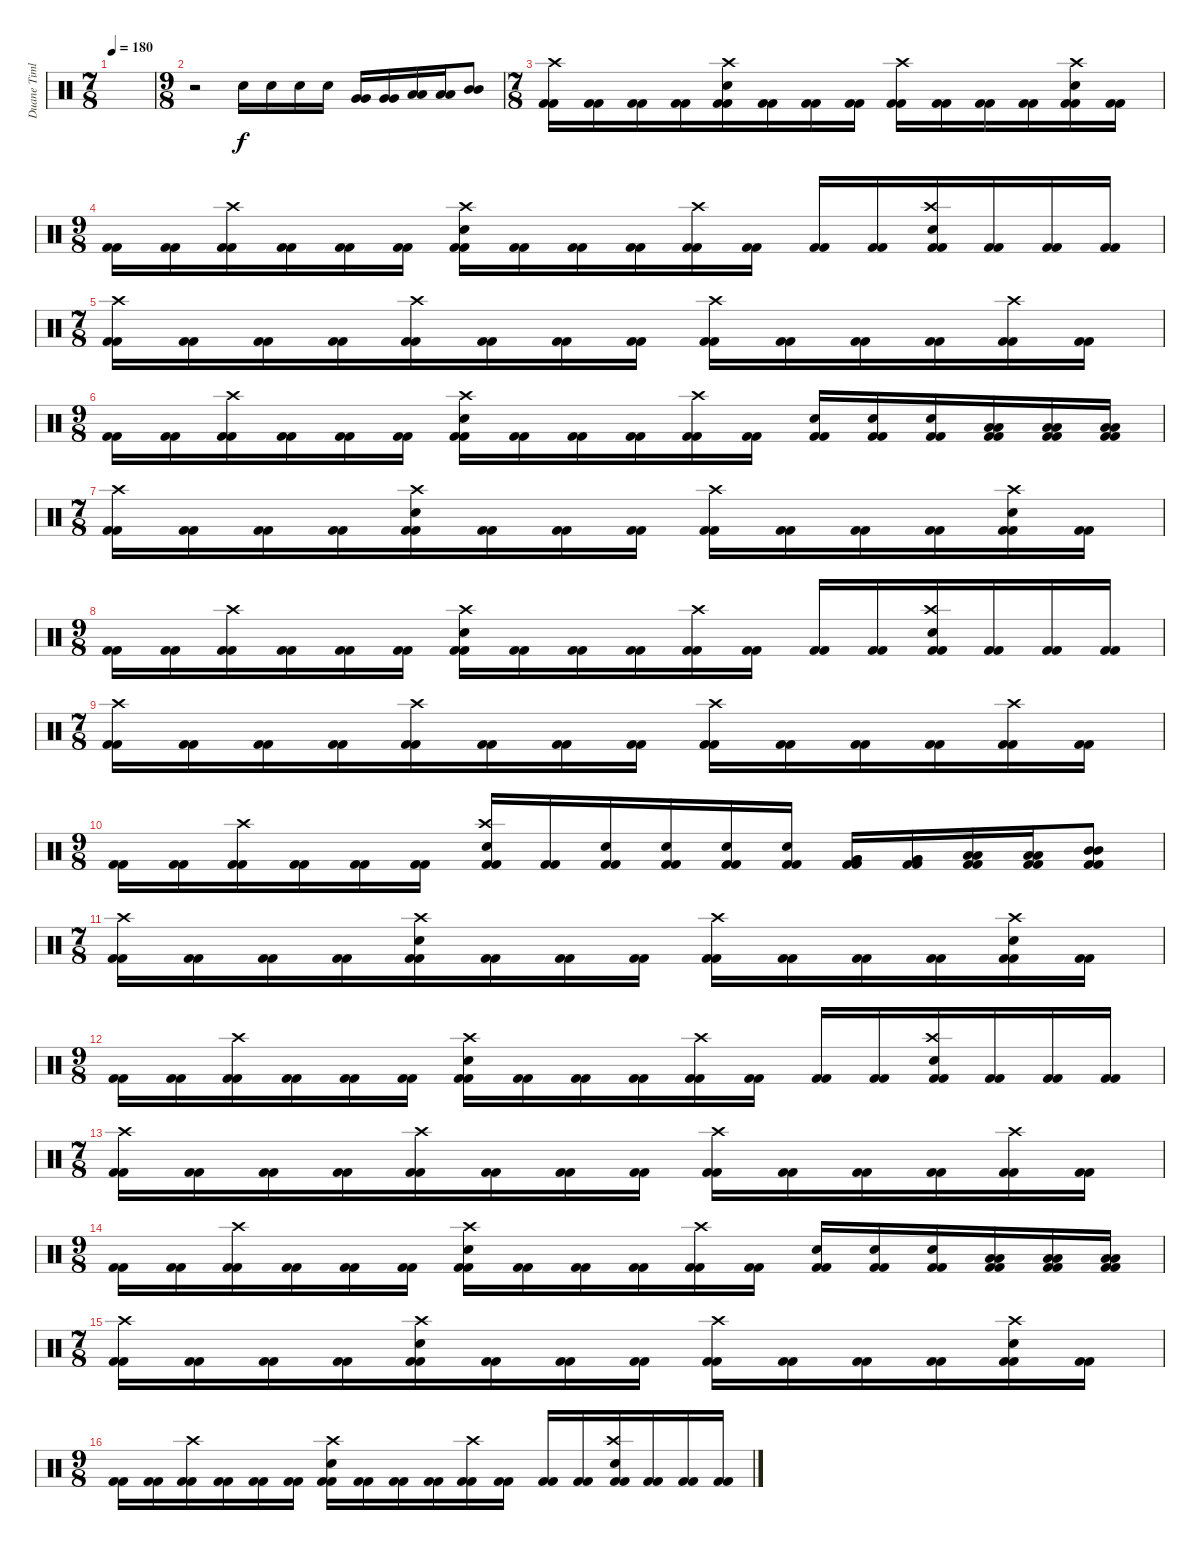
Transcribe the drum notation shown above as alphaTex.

\track ("Duane Timlin" "Duane Timl") {instrument percussion}
\staff {score}
\articulation defaults
\ts (7 8)
\tempo 180
\clef neutral
\ks c
|
\ts (9 8)
r.2 "Electric Snare (hit)".16 "Electric Snare (hit)".16 "Electric Snare (hit)".16 "Electric Snare (hit)".16 ("Very Low Tom (hit)" "Very Low Tom (hit)").16 ("Very Low Tom (hit)" "Very Low Tom (hit)").16 ("Low Tom (hit)" "Low Tom (hit)").16 ("Low Tom (hit)" "Low Tom (hit)").16 ("Mid Tom (hit)" "Mid Tom (hit)").8 |
\ts (7 8)
("Crash high (hit)" "Kick (hit) 2" "Kick (hit) 2").16 ("Kick (hit) 2" "Kick (hit) 2").16 ("Kick (hit) 2" "Kick (hit) 2").16 ("Kick (hit) 2" "Kick (hit) 2").16 ("Crash high (hit)" "Electric Snare (hit)" "Kick (hit) 2" "Kick (hit) 2").16 ("Kick (hit) 2" "Kick (hit) 2").16 ("Kick (hit) 2" "Kick (hit) 2").16 ("Kick (hit) 2" "Kick (hit) 2").16 ("Crash high (hit)" "Kick (hit) 2" "Kick (hit) 2").16 ("Kick (hit) 2" "Kick (hit) 2").16 ("Kick (hit) 2" "Kick (hit) 2").16 ("Kick (hit) 2" "Kick (hit) 2").16 ("Crash high (hit)" "Electric Snare (hit)" "Kick (hit) 2" "Kick (hit) 2").16 ("Kick (hit) 2" "Kick (hit) 2").16 |
\ts (9 8)
("Kick (hit) 2" "Kick (hit) 2").16 ("Kick (hit) 2" "Kick (hit) 2").16 ("Crash high (hit)" "Kick (hit) 2" "Kick (hit) 2").16 ("Kick (hit) 2" "Kick (hit) 2").16 ("Kick (hit) 2" "Kick (hit) 2").16 ("Kick (hit) 2" "Kick (hit) 2").16 ("Crash high (hit)" "Electric Snare (hit)" "Kick (hit) 2" "Kick (hit) 2").16 ("Kick (hit) 2" "Kick (hit) 2").16 ("Kick (hit) 2" "Kick (hit) 2").16 ("Kick (hit) 2" "Kick (hit) 2").16 ("Crash high (hit)" "Kick (hit) 2" "Kick (hit) 2").16 ("Kick (hit) 2" "Kick (hit) 2").16 ("Kick (hit) 2" "Kick (hit) 2").16 ("Kick (hit) 2" "Kick (hit) 2").16 ("Crash high (hit)" "Electric Snare (hit)" "Kick (hit) 2" "Kick (hit) 2").16 ("Kick (hit) 2" "Kick (hit) 2").16 ("Kick (hit) 2" "Kick (hit) 2").16 ("Kick (hit) 2" "Kick (hit) 2").16 |
\ts (7 8)
("Crash high (hit)" "Kick (hit) 2" "Kick (hit) 2").16 ("Kick (hit) 2" "Kick (hit) 2").16 ("Kick (hit) 2" "Kick (hit) 2").16 ("Kick (hit) 2" "Kick (hit) 2").16 ("Crash high (hit)" "Kick (hit) 2" "Kick (hit) 2").16 ("Kick (hit) 2" "Kick (hit) 2").16 ("Kick (hit) 2" "Kick (hit) 2").16 ("Kick (hit) 2" "Kick (hit) 2").16 ("Crash high (hit)" "Kick (hit) 2" "Kick (hit) 2").16 ("Kick (hit) 2" "Kick (hit) 2").16 ("Kick (hit) 2" "Kick (hit) 2").16 ("Kick (hit) 2" "Kick (hit) 2").16 ("Crash high (hit)" "Kick (hit) 2" "Kick (hit) 2").16 ("Kick (hit) 2" "Kick (hit) 2").16 |
\ts (9 8)
("Kick (hit) 2" "Kick (hit) 2").16 ("Kick (hit) 2" "Kick (hit) 2").16 ("Crash high (hit)" "Kick (hit) 2" "Kick (hit) 2").16 ("Kick (hit) 2" "Kick (hit) 2").16 ("Kick (hit) 2" "Kick (hit) 2").16 ("Kick (hit) 2" "Kick (hit) 2").16 ("Crash high (hit)" "Electric Snare (hit)" "Kick (hit) 2" "Kick (hit) 2").16 ("Kick (hit) 2" "Kick (hit) 2").16 ("Kick (hit) 2" "Kick (hit) 2").16 ("Kick (hit) 2" "Kick (hit) 2").16 ("Crash high (hit)" "Kick (hit) 2" "Kick (hit) 2").16 ("Kick (hit) 2" "Kick (hit) 2").16 ("Electric Snare (hit)" "Kick (hit) 2" "Kick (hit) 2").16 ("Electric Snare (hit)" "Kick (hit) 2" "Kick (hit) 2").16 ("Electric Snare (hit)" "Kick (hit) 2" "Kick (hit) 2").16 ("Low Tom (hit)" "Low Tom (hit)" "Kick (hit) 2" "Kick (hit) 2").16 ("Low Tom (hit)" "Low Tom (hit)" "Kick (hit) 2" "Kick (hit) 2").16 ("Low Tom (hit)" "Low Tom (hit)" "Kick (hit) 2" "Kick (hit) 2").16 |
\ts (7 8)
("Crash high (hit)" "Kick (hit) 2" "Kick (hit) 2").16 ("Kick (hit) 2" "Kick (hit) 2").16 ("Kick (hit) 2" "Kick (hit) 2").16 ("Kick (hit) 2" "Kick (hit) 2").16 ("Crash high (hit)" "Electric Snare (hit)" "Kick (hit) 2" "Kick (hit) 2").16 ("Kick (hit) 2" "Kick (hit) 2").16 ("Kick (hit) 2" "Kick (hit) 2").16 ("Kick (hit) 2" "Kick (hit) 2").16 ("Crash high (hit)" "Kick (hit) 2" "Kick (hit) 2").16 ("Kick (hit) 2" "Kick (hit) 2").16 ("Kick (hit) 2" "Kick (hit) 2").16 ("Kick (hit) 2" "Kick (hit) 2").16 ("Crash high (hit)" "Electric Snare (hit)" "Kick (hit) 2" "Kick (hit) 2").16 ("Kick (hit) 2" "Kick (hit) 2").16 |
\ts (9 8)
("Kick (hit) 2" "Kick (hit) 2").16 ("Kick (hit) 2" "Kick (hit) 2").16 ("Crash high (hit)" "Kick (hit) 2" "Kick (hit) 2").16 ("Kick (hit) 2" "Kick (hit) 2").16 ("Kick (hit) 2" "Kick (hit) 2").16 ("Kick (hit) 2" "Kick (hit) 2").16 ("Crash high (hit)" "Electric Snare (hit)" "Kick (hit) 2" "Kick (hit) 2").16 ("Kick (hit) 2" "Kick (hit) 2").16 ("Kick (hit) 2" "Kick (hit) 2").16 ("Kick (hit) 2" "Kick (hit) 2").16 ("Crash high (hit)" "Kick (hit) 2" "Kick (hit) 2").16 ("Kick (hit) 2" "Kick (hit) 2").16 ("Kick (hit) 2" "Kick (hit) 2").16 ("Kick (hit) 2" "Kick (hit) 2").16 ("Crash high (hit)" "Electric Snare (hit)" "Kick (hit) 2" "Kick (hit) 2").16 ("Kick (hit) 2" "Kick (hit) 2").16 ("Kick (hit) 2" "Kick (hit) 2").16 ("Kick (hit) 2" "Kick (hit) 2").16 |
\ts (7 8)
("Crash high (hit)" "Kick (hit) 2" "Kick (hit) 2").16 ("Kick (hit) 2" "Kick (hit) 2").16 ("Kick (hit) 2" "Kick (hit) 2").16 ("Kick (hit) 2" "Kick (hit) 2").16 ("Crash high (hit)" "Kick (hit) 2" "Kick (hit) 2").16 ("Kick (hit) 2" "Kick (hit) 2").16 ("Kick (hit) 2" "Kick (hit) 2").16 ("Kick (hit) 2" "Kick (hit) 2").16 ("Crash high (hit)" "Kick (hit) 2" "Kick (hit) 2").16 ("Kick (hit) 2" "Kick (hit) 2").16 ("Kick (hit) 2" "Kick (hit) 2").16 ("Kick (hit) 2" "Kick (hit) 2").16 ("Crash high (hit)" "Kick (hit) 2" "Kick (hit) 2").16 ("Kick (hit) 2" "Kick (hit) 2").16 |
\ts (9 8)
("Kick (hit) 2" "Kick (hit) 2").16 ("Kick (hit) 2" "Kick (hit) 2").16 ("Crash high (hit)" "Kick (hit) 2" "Kick (hit) 2").16 ("Kick (hit) 2" "Kick (hit) 2").16 ("Kick (hit) 2" "Kick (hit) 2").16 ("Kick (hit) 2" "Kick (hit) 2").16 ("Crash high (hit)" "Electric Snare (hit)" "Kick (hit) 2" "Kick (hit) 2").16 ("Kick (hit) 2" "Kick (hit) 2").16 ("Electric Snare (hit)" "Kick (hit) 2" "Kick (hit) 2").16 ("Electric Snare (hit)" "Kick (hit) 2" "Kick (hit) 2").16 ("Electric Snare (hit)" "Kick (hit) 2" "Kick (hit) 2").16 ("Electric Snare (hit)" "Kick (hit) 2" "Kick (hit) 2").16 ("Very Low Tom (hit)" "Very Low Tom (hit)" "Kick (hit) 2" "Kick (hit) 2").16 ("Very Low Tom (hit)" "Very Low Tom (hit)" "Kick (hit) 2" "Kick (hit) 2").16 ("Low Tom (hit)" "Low Tom (hit)" "Kick (hit) 2" "Kick (hit) 2").16 ("Low Tom (hit)" "Low Tom (hit)" "Kick (hit) 2" "Kick (hit) 2").16 ("Mid Tom (hit)" "Mid Tom (hit)" "Kick (hit) 2" "Kick (hit) 2").8 |
\ts (7 8)
("Crash high (hit)" "Kick (hit) 2" "Kick (hit) 2").16 ("Kick (hit) 2" "Kick (hit) 2").16 ("Kick (hit) 2" "Kick (hit) 2").16 ("Kick (hit) 2" "Kick (hit) 2").16 ("Crash high (hit)" "Electric Snare (hit)" "Kick (hit) 2" "Kick (hit) 2").16 ("Kick (hit) 2" "Kick (hit) 2").16 ("Kick (hit) 2" "Kick (hit) 2").16 ("Kick (hit) 2" "Kick (hit) 2").16 ("Crash high (hit)" "Kick (hit) 2" "Kick (hit) 2").16 ("Kick (hit) 2" "Kick (hit) 2").16 ("Kick (hit) 2" "Kick (hit) 2").16 ("Kick (hit) 2" "Kick (hit) 2").16 ("Crash high (hit)" "Electric Snare (hit)" "Kick (hit) 2" "Kick (hit) 2").16 ("Kick (hit) 2" "Kick (hit) 2").16 |
\ts (9 8)
("Kick (hit) 2" "Kick (hit) 2").16 ("Kick (hit) 2" "Kick (hit) 2").16 ("Crash high (hit)" "Kick (hit) 2" "Kick (hit) 2").16 ("Kick (hit) 2" "Kick (hit) 2").16 ("Kick (hit) 2" "Kick (hit) 2").16 ("Kick (hit) 2" "Kick (hit) 2").16 ("Crash high (hit)" "Electric Snare (hit)" "Kick (hit) 2" "Kick (hit) 2").16 ("Kick (hit) 2" "Kick (hit) 2").16 ("Kick (hit) 2" "Kick (hit) 2").16 ("Kick (hit) 2" "Kick (hit) 2").16 ("Crash high (hit)" "Kick (hit) 2" "Kick (hit) 2").16 ("Kick (hit) 2" "Kick (hit) 2").16 ("Kick (hit) 2" "Kick (hit) 2").16 ("Kick (hit) 2" "Kick (hit) 2").16 ("Crash high (hit)" "Electric Snare (hit)" "Kick (hit) 2" "Kick (hit) 2").16 ("Kick (hit) 2" "Kick (hit) 2").16 ("Kick (hit) 2" "Kick (hit) 2").16 ("Kick (hit) 2" "Kick (hit) 2").16 |
\ts (7 8)
("Crash high (hit)" "Kick (hit) 2" "Kick (hit) 2").16 ("Kick (hit) 2" "Kick (hit) 2").16 ("Kick (hit) 2" "Kick (hit) 2").16 ("Kick (hit) 2" "Kick (hit) 2").16 ("Crash high (hit)" "Kick (hit) 2" "Kick (hit) 2").16 ("Kick (hit) 2" "Kick (hit) 2").16 ("Kick (hit) 2" "Kick (hit) 2").16 ("Kick (hit) 2" "Kick (hit) 2").16 ("Crash high (hit)" "Kick (hit) 2" "Kick (hit) 2").16 ("Kick (hit) 2" "Kick (hit) 2").16 ("Kick (hit) 2" "Kick (hit) 2").16 ("Kick (hit) 2" "Kick (hit) 2").16 ("Crash high (hit)" "Kick (hit) 2" "Kick (hit) 2").16 ("Kick (hit) 2" "Kick (hit) 2").16 |
\ts (9 8)
("Kick (hit) 2" "Kick (hit) 2").16 ("Kick (hit) 2" "Kick (hit) 2").16 ("Crash high (hit)" "Kick (hit) 2" "Kick (hit) 2").16 ("Kick (hit) 2" "Kick (hit) 2").16 ("Kick (hit) 2" "Kick (hit) 2").16 ("Kick (hit) 2" "Kick (hit) 2").16 ("Crash high (hit)" "Electric Snare (hit)" "Kick (hit) 2" "Kick (hit) 2").16 ("Kick (hit) 2" "Kick (hit) 2").16 ("Kick (hit) 2" "Kick (hit) 2").16 ("Kick (hit) 2" "Kick (hit) 2").16 ("Crash high (hit)" "Kick (hit) 2" "Kick (hit) 2").16 ("Kick (hit) 2" "Kick (hit) 2").16 ("Electric Snare (hit)" "Kick (hit) 2" "Kick (hit) 2").16 ("Electric Snare (hit)" "Kick (hit) 2" "Kick (hit) 2").16 ("Electric Snare (hit)" "Kick (hit) 2" "Kick (hit) 2").16 ("Low Tom (hit)" "Low Tom (hit)" "Kick (hit) 2" "Kick (hit) 2").16 ("Low Tom (hit)" "Low Tom (hit)" "Kick (hit) 2" "Kick (hit) 2").16 ("Low Tom (hit)" "Low Tom (hit)" "Kick (hit) 2" "Kick (hit) 2").16 |
\ts (7 8)
("Crash high (hit)" "Kick (hit) 2" "Kick (hit) 2").16 ("Kick (hit) 2" "Kick (hit) 2").16 ("Kick (hit) 2" "Kick (hit) 2").16 ("Kick (hit) 2" "Kick (hit) 2").16 ("Crash high (hit)" "Electric Snare (hit)" "Kick (hit) 2" "Kick (hit) 2").16 ("Kick (hit) 2" "Kick (hit) 2").16 ("Kick (hit) 2" "Kick (hit) 2").16 ("Kick (hit) 2" "Kick (hit) 2").16 ("Crash high (hit)" "Kick (hit) 2" "Kick (hit) 2").16 ("Kick (hit) 2" "Kick (hit) 2").16 ("Kick (hit) 2" "Kick (hit) 2").16 ("Kick (hit) 2" "Kick (hit) 2").16 ("Crash high (hit)" "Electric Snare (hit)" "Kick (hit) 2" "Kick (hit) 2").16 ("Kick (hit) 2" "Kick (hit) 2").16 |
\ts (9 8)
("Kick (hit) 2" "Kick (hit) 2").16 ("Kick (hit) 2" "Kick (hit) 2").16 ("Crash high (hit)" "Kick (hit) 2" "Kick (hit) 2").16 ("Kick (hit) 2" "Kick (hit) 2").16 ("Kick (hit) 2" "Kick (hit) 2").16 ("Kick (hit) 2" "Kick (hit) 2").16 ("Crash high (hit)" "Electric Snare (hit)" "Kick (hit) 2" "Kick (hit) 2").16 ("Kick (hit) 2" "Kick (hit) 2").16 ("Kick (hit) 2" "Kick (hit) 2").16 ("Kick (hit) 2" "Kick (hit) 2").16 ("Crash high (hit)" "Kick (hit) 2" "Kick (hit) 2").16 ("Kick (hit) 2" "Kick (hit) 2").16 ("Kick (hit) 2" "Kick (hit) 2").16 ("Kick (hit) 2" "Kick (hit) 2").16 ("Crash high (hit)" "Electric Snare (hit)" "Kick (hit) 2" "Kick (hit) 2").16 ("Kick (hit) 2" "Kick (hit) 2").16 ("Kick (hit) 2" "Kick (hit) 2").16 ("Kick (hit) 2" "Kick (hit) 2").16
